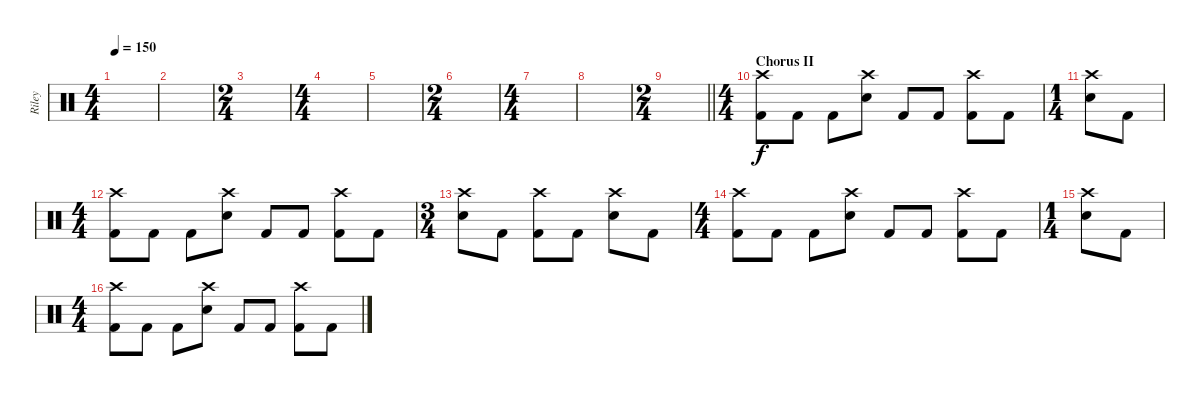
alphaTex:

\track ("Riley" "Riley") {instrument percussion}
\staff {score}
\articulation defaults
\ts (4 4)
\tempo 150
\clef neutral
\ks c
|
|
\ts (2 4)
|
\ts (4 4)
|
|
\ts (2 4)
|
\ts (4 4)
|
|
\ts (2 4)
\barLineRight lightlight
|
\ts (4 4)
\section ("" "Chorus II")
("Crash high (hit)" "Kick (hit) 2").8 "Kick (hit) 2".8 "Kick (hit) 2".8 ("Crash high (hit)" "Electric Snare (hit)").8 "Kick (hit) 2".8 "Kick (hit) 2".8 ("Crash high (hit)" "Kick (hit) 2").8 "Kick (hit) 2".8 |
\ts (1 4)
("Crash high (hit)" "Electric Snare (hit)").8 "Kick (hit) 2".8 |
\ts (4 4)
("Crash high (hit)" "Kick (hit) 2").8 "Kick (hit) 2".8 "Kick (hit) 2".8 ("Crash high (hit)" "Electric Snare (hit)").8 "Kick (hit) 2".8 "Kick (hit) 2".8 ("Crash high (hit)" "Kick (hit) 2").8 "Kick (hit) 2".8 |
\ts (3 4)
("Crash high (hit)" "Electric Snare (hit)").8 "Kick (hit) 2".8 ("Crash high (hit)" "Kick (hit) 2").8 "Kick (hit) 2".8 ("Crash high (hit)" "Electric Snare (hit)").8 "Kick (hit) 2".8 |
\ts (4 4)
("Crash high (hit)" "Kick (hit) 2").8 "Kick (hit) 2".8 "Kick (hit) 2".8 ("Crash high (hit)" "Electric Snare (hit)").8 "Kick (hit) 2".8 "Kick (hit) 2".8 ("Crash high (hit)" "Kick (hit) 2").8 "Kick (hit) 2".8 |
\ts (1 4)
("Crash high (hit)" "Electric Snare (hit)").8 "Kick (hit) 2".8 |
\ts (4 4)
("Crash high (hit)" "Kick (hit) 2").8 "Kick (hit) 2".8 "Kick (hit) 2".8 ("Crash high (hit)" "Electric Snare (hit)").8 "Kick (hit) 2".8 "Kick (hit) 2".8 ("Crash high (hit)" "Kick (hit) 2").8 "Kick (hit) 2".8
